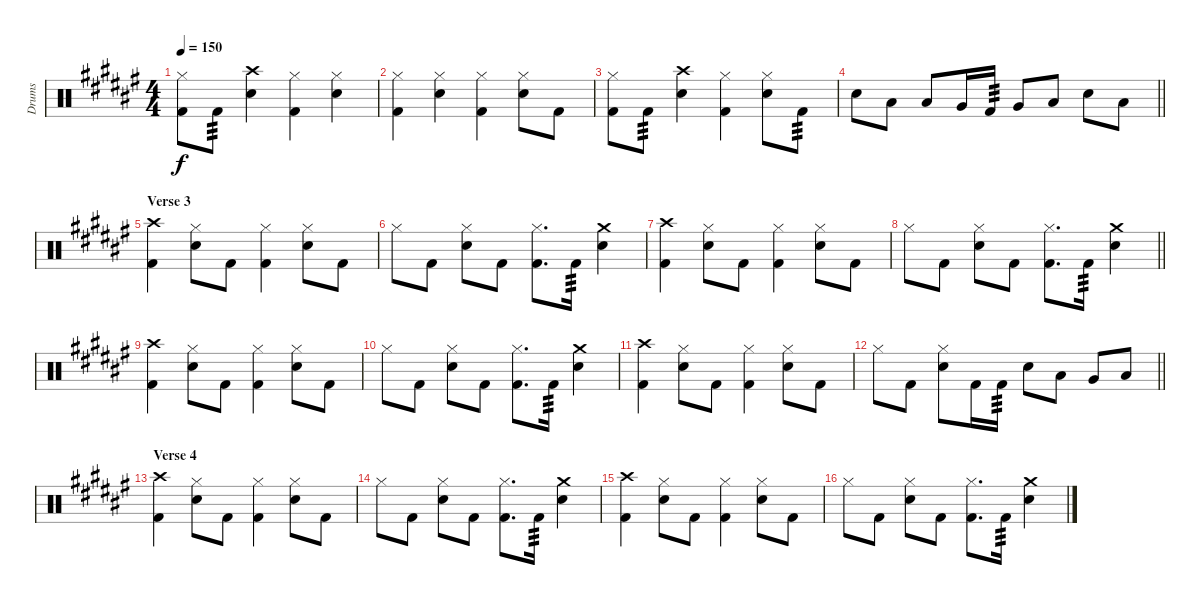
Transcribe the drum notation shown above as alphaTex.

\track ("Drums" "Drums") {instrument percussion}
\staff {score}
\articulation defaults
\ts (4 4)
\tempo 150
\clef neutral
\ks f#
("Hi-Hat (closed)" "Kick (hit) 2").8{dy f} "Kick (hit) 2".8{tp 3} ("Crash high (hit)" "Electric Snare (hit)").4 ("Hi-Hat (closed)" "Kick (hit) 2").4 ("Electric Snare (hit)" "Hi-Hat (closed)").4 |
("Hi-Hat (closed)" "Kick (hit) 2").4 ("Electric Snare (hit)" "Hi-Hat (closed)").4 ("Hi-Hat (closed)" "Kick (hit) 2").4 ("Electric Snare (hit)" "Hi-Hat (closed)").8 "Kick (hit) 2".8 |
("Hi-Hat (closed)" "Kick (hit) 2").8 "Kick (hit) 2".8{tp 3} ("Crash high (hit)" "Electric Snare (hit)").4 ("Hi-Hat (closed)" "Kick (hit) 2").4 ("Electric Snare (hit)" "Hi-Hat (closed)").8 "Kick (hit) 2".8{tp 3} |
\barLineRight lightlight "Electric Snare (hit)".8 "Low Tom (hit)".8 "Low Tom (hit)".8 "Very Low Tom (hit)".16 "Kick (hit) 2".16{tp 3} "Very Low Tom (hit)".8 "Low Floor Tom (hit)".8 "Electric Snare (hit)".8 "Low Floor Tom (hit)".8
|
\section ("" "Verse 3")
("Crash high (hit)" "Kick (hit) 2").4 ("Electric Snare (hit)" "Hi-Hat (closed)").8 "Kick (hit) 2".8 ("Hi-Hat (closed)" "Kick (hit) 2").4 ("Electric Snare (hit)" "Hi-Hat (closed)").8 "Kick (hit) 2".8 |
"Hi-Hat (closed)".8 "Kick (hit) 2".8 ("Electric Snare (hit)" "Hi-Hat (closed)").8 "Kick (hit) 2".8 ("Hi-Hat (closed)" "Kick (hit) 2").8{d} "Kick (hit) 2".16{tp 3} ("Crash medium (hit)" "Electric Snare (hit)").4 |
("Crash high (hit)" "Kick (hit) 2").4 ("Electric Snare (hit)" "Hi-Hat (closed)").8 "Kick (hit) 2".8 ("Hi-Hat (closed)" "Kick (hit) 2").4 ("Electric Snare (hit)" "Hi-Hat (closed)").8 "Kick (hit) 2".8 |
\barLineRight lightlight "Hi-Hat (closed)".8 "Kick (hit) 2".8
("Electric Snare (hit)" "Hi-Hat (closed)").8 "Kick (hit) 2".8 ("Hi-Hat (closed)" "Kick (hit) 2").8{d} "Kick (hit) 2".16{tp 3} ("Crash medium (hit)" "Electric Snare (hit)").4 |
("Crash high (hit)" "Kick (hit) 2").4 ("Electric Snare (hit)" "Hi-Hat (closed)").8 "Kick (hit) 2".8 ("Hi-Hat (closed)" "Kick (hit) 2").4 ("Electric Snare (hit)" "Hi-Hat (closed)").8 "Kick (hit) 2".8 |
"Hi-Hat (closed)".8 "Kick (hit) 2".8 ("Electric Snare (hit)" "Hi-Hat (closed)").8 "Kick (hit) 2".8 ("Hi-Hat (closed)" "Kick (hit) 2").8{d} "Kick (hit) 2".16{tp 3} ("Crash medium (hit)" "Electric Snare (hit)").4 |
("Crash high (hit)" "Kick (hit) 2").4 ("Electric Snare (hit)" "Hi-Hat (closed)").8 "Kick (hit) 2".8 ("Hi-Hat (closed)" "Kick (hit) 2").4 ("Electric Snare (hit)" "Hi-Hat (closed)").8 "Kick (hit) 2".8 |
\barLineRight lightlight "Hi-Hat (closed)".8 "Kick (hit) 2".8
("Electric Snare (hit)" "Hi-Hat (closed)").8 "Kick (hit) 2".16 "Kick (hit) 2".16{tp 3} "Electric Snare (hit)".8 "Low Floor Tom (hit)".8 "Very Low Tom (hit)".8 "Low Floor Tom (hit)".8 |
\section ("" "Verse 4")
("Crash high (hit)" "Kick (hit) 2").4 ("Electric Snare (hit)" "Hi-Hat (closed)").8 "Kick (hit) 2".8 ("Hi-Hat (closed)" "Kick (hit) 2").4 ("Electric Snare (hit)" "Hi-Hat (closed)").8 "Kick (hit) 2".8 |
"Hi-Hat (closed)".8 "Kick (hit) 2".8 ("Electric Snare (hit)" "Hi-Hat (closed)").8 "Kick (hit) 2".8 ("Hi-Hat (closed)" "Kick (hit) 2").8{d} "Kick (hit) 2".16{tp 3} ("Crash medium (hit)" "Electric Snare (hit)").4 |
("Crash high (hit)" "Kick (hit) 2").4 ("Electric Snare (hit)" "Hi-Hat (closed)").8 "Kick (hit) 2".8 ("Hi-Hat (closed)" "Kick (hit) 2").4 ("Electric Snare (hit)" "Hi-Hat (closed)").8 "Kick (hit) 2".8 |
"Hi-Hat (closed)".8 "Kick (hit) 2".8 ("Electric Snare (hit)" "Hi-Hat (closed)").8 "Kick (hit) 2".8 ("Hi-Hat (closed)" "Kick (hit) 2").8{d} "Kick (hit) 2".16{tp 3} ("Crash medium (hit)" "Electric Snare (hit)").4
